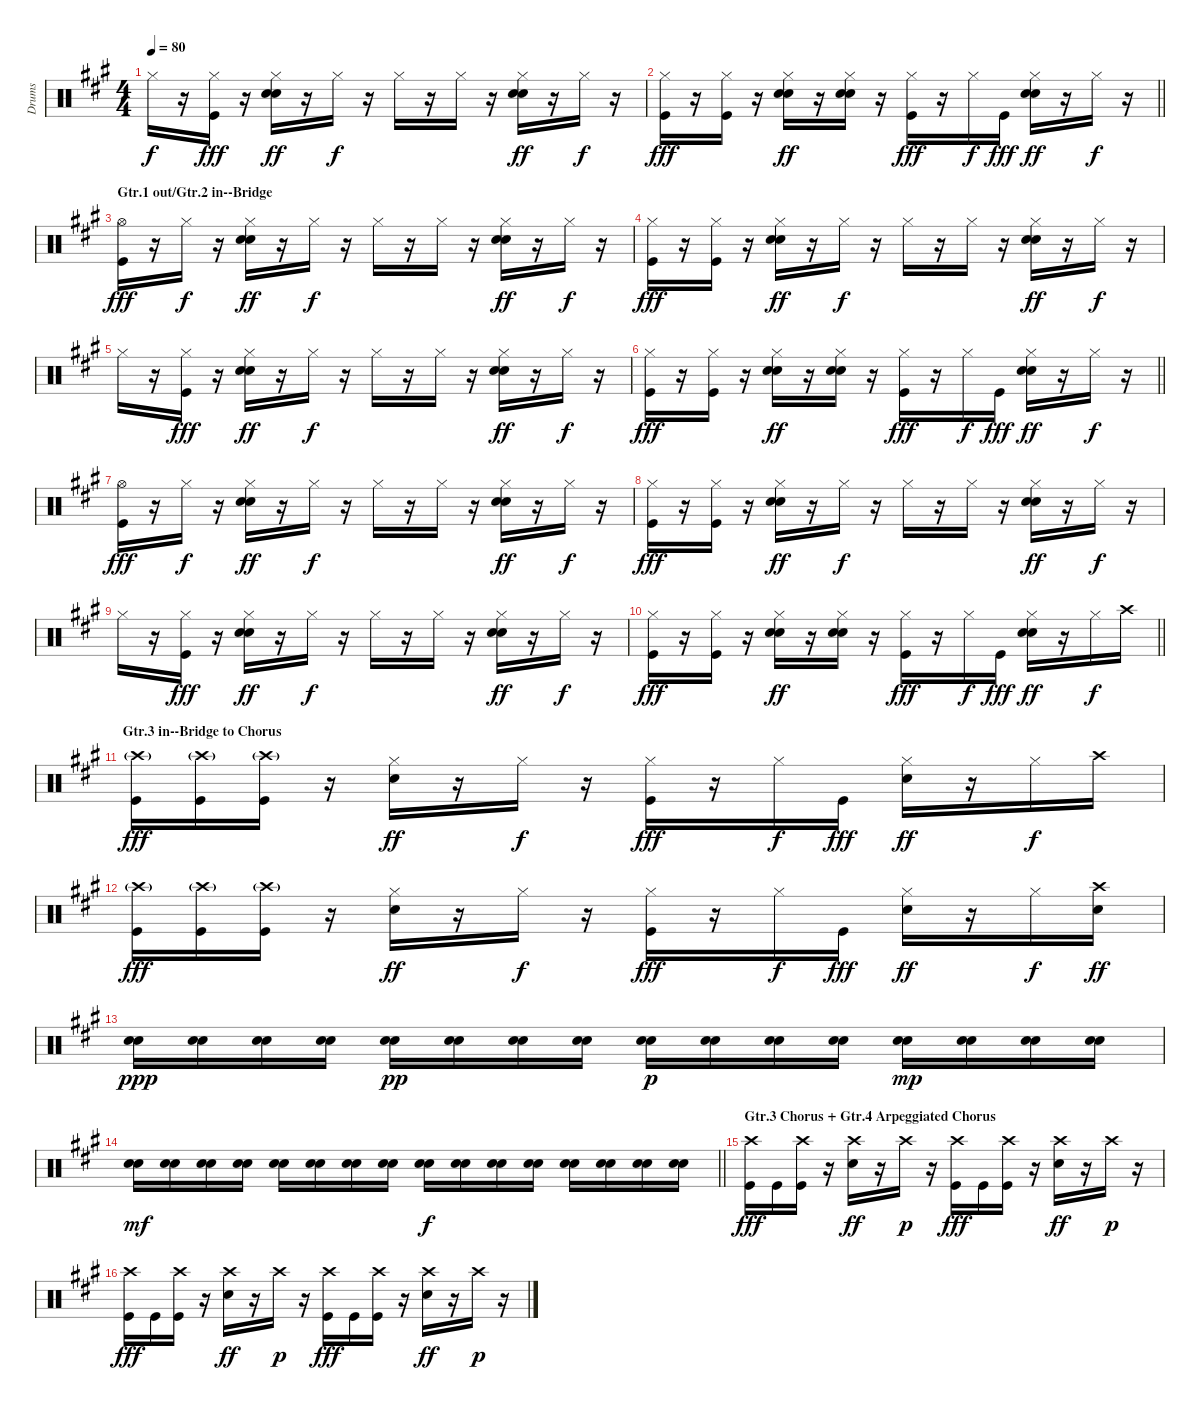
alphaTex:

\track ("Drums" "Drums") {instrument percussion}
\staff {score}
\articulation defaults
\ts (4 4)
\tempo 80
\clef neutral
\ks f#minor "Hi-Hat (closed)".16{dy f}
r.16 ("Hi-Hat (closed)" "Kick (hit)").16{dy fff} r.16 ("Hi-Hat (closed)" "Electric Snare (hit)" "Snare (hit) 2").16{dy ff} r.16 "Hi-Hat (closed)".16{dy f} r.16 "Hi-Hat (closed)".16 r.16 "Hi-Hat (closed)".16 r.16 ("Hi-Hat (closed)" "Electric Snare (hit)" "Snare (hit) 2").16{dy ff} r.16 "Hi-Hat (closed)".16{dy f} r.16 |
\barLineRight lightlight
("Hi-Hat (closed)" "Kick (hit)").16{dy fff} r.16 ("Hi-Hat (closed)" "Kick (hit)").16 r.16 ("Hi-Hat (closed)" "Electric Snare (hit)" "Snare (hit) 2").16{dy ff} r.16 ("Hi-Hat (closed)" "Electric Snare (hit)" "Snare (hit) 2").16 r.16 ("Hi-Hat (closed)" "Kick (hit)").16{dy fff} r.16 "Hi-Hat (closed)".16{dy f} "Kick (hit)".16{dy fff} ("Hi-Hat (closed)" "Electric Snare (hit)" "Snare (hit) 2").16{dy ff} r.16 "Hi-Hat (closed)".16{dy f} r.16 |
\section ("" "Gtr.1 out/Gtr.2 in--Bridge")
\ks a
("Hi-Hat (open)" "Kick (hit)").16{dy fff} r.16 "Hi-Hat (closed)".16{dy f} r.16 ("Hi-Hat (closed)" "Electric Snare (hit)" "Snare (hit) 2").16{dy ff} r.16 "Hi-Hat (closed)".16{dy f} r.16 "Hi-Hat (closed)".16 r.16 "Hi-Hat (closed)".16 r.16 ("Hi-Hat (closed)" "Electric Snare (hit)" "Snare (hit) 2").16{dy ff} r.16 "Hi-Hat (closed)".16{dy f} r.16 |
\ks f#minor
("Hi-Hat (closed)" "Kick (hit)").16{dy fff} r.16 ("Hi-Hat (closed)" "Kick (hit)").16 r.16 ("Hi-Hat (closed)" "Electric Snare (hit)" "Snare (hit) 2").16{dy ff} r.16 "Hi-Hat (closed)".16{dy f} r.16 "Hi-Hat (closed)".16 r.16 "Hi-Hat (closed)".16 r.16 ("Hi-Hat (closed)" "Electric Snare (hit)" "Snare (hit) 2").16{dy ff} r.16 "Hi-Hat (closed)".16{dy f} r.16 |
"Hi-Hat (closed)".16 r.16 ("Hi-Hat (closed)" "Kick (hit)").16{dy fff} r.16 ("Hi-Hat (closed)" "Electric Snare (hit)" "Snare (hit) 2").16{dy ff} r.16 "Hi-Hat (closed)".16{dy f} r.16 "Hi-Hat (closed)".16 r.16 "Hi-Hat (closed)".16 r.16 ("Hi-Hat (closed)" "Electric Snare (hit)" "Snare (hit) 2").16{dy ff} r.16 "Hi-Hat (closed)".16{dy f} r.16 |
\barLineRight lightlight
("Hi-Hat (closed)" "Kick (hit)").16{dy fff} r.16 ("Hi-Hat (closed)" "Kick (hit)").16 r.16 ("Hi-Hat (closed)" "Electric Snare (hit)" "Snare (hit) 2").16{dy ff} r.16 ("Hi-Hat (closed)" "Electric Snare (hit)" "Snare (hit) 2").16 r.16 ("Hi-Hat (closed)" "Kick (hit)").16{dy fff} r.16 "Hi-Hat (closed)".16{dy f} "Kick (hit)".16{dy fff} ("Hi-Hat (closed)" "Electric Snare (hit)" "Snare (hit) 2").16{dy ff} r.16 "Hi-Hat (closed)".16{dy f} r.16 |
\ks a
("Hi-Hat (open)" "Kick (hit)").16{dy fff} r.16 "Hi-Hat (closed)".16{dy f} r.16 ("Hi-Hat (closed)" "Electric Snare (hit)" "Snare (hit) 2").16{dy ff} r.16 "Hi-Hat (closed)".16{dy f} r.16 "Hi-Hat (closed)".16 r.16 "Hi-Hat (closed)".16 r.16 ("Hi-Hat (closed)" "Electric Snare (hit)" "Snare (hit) 2").16{dy ff} r.16 "Hi-Hat (closed)".16{dy f} r.16 |
\ks f#minor
("Hi-Hat (closed)" "Kick (hit)").16{dy fff} r.16 ("Hi-Hat (closed)" "Kick (hit)").16 r.16 ("Hi-Hat (closed)" "Electric Snare (hit)" "Snare (hit) 2").16{dy ff} r.16 "Hi-Hat (closed)".16{dy f} r.16 "Hi-Hat (closed)".16 r.16 "Hi-Hat (closed)".16 r.16 ("Hi-Hat (closed)" "Electric Snare (hit)" "Snare (hit) 2").16{dy ff} r.16 "Hi-Hat (closed)".16{dy f} r.16 |
"Hi-Hat (closed)".16 r.16 ("Hi-Hat (closed)" "Kick (hit)").16{dy fff} r.16 ("Hi-Hat (closed)" "Electric Snare (hit)" "Snare (hit) 2").16{dy ff} r.16 "Hi-Hat (closed)".16{dy f} r.16 "Hi-Hat (closed)".16 r.16 "Hi-Hat (closed)".16 r.16 ("Hi-Hat (closed)" "Electric Snare (hit)" "Snare (hit) 2").16{dy ff} r.16 "Hi-Hat (closed)".16{dy f} r.16 |
\barLineRight lightlight
("Hi-Hat (closed)" "Kick (hit)").16{dy fff} r.16 ("Hi-Hat (closed)" "Kick (hit)").16 r.16 ("Hi-Hat (closed)" "Electric Snare (hit)" "Snare (hit) 2").16{dy ff} r.16 ("Hi-Hat (closed)" "Electric Snare (hit)" "Snare (hit) 2").16 r.16 ("Hi-Hat (closed)" "Kick (hit)").16{dy fff} r.16 "Hi-Hat (closed)".16{dy f} "Kick (hit)".16{dy fff} ("Hi-Hat (closed)" "Electric Snare (hit)" "Snare (hit) 2").16{dy ff} r.16 "Hi-Hat (closed)".16{dy f} "Crash high (hit)".16 |
\section ("" "Gtr.3 in--Bridge to Chorus")
("Crash high (hit)"{g} "Kick (hit)").16{dy fff} ("Crash high (hit)"{g} "Kick (hit)").16 ("Crash high (hit)"{g} "Kick (hit)").16 r.16 ("Hi-Hat (closed)" "Electric Snare (hit)").16{dy ff} r.16 "Hi-Hat (closed)".16{dy f} r.16 ("Hi-Hat (closed)" "Kick (hit)").16{dy fff} r.16 "Hi-Hat (closed)".16{dy f} "Kick (hit)".16{dy fff} ("Hi-Hat (closed)" "Electric Snare (hit)").16{dy ff} r.16 "Hi-Hat (closed)".16{dy f} "Crash high (hit)".16 |
("Crash high (hit)"{g} "Kick (hit)").16{dy fff} ("Crash high (hit)"{g} "Kick (hit)").16 ("Crash high (hit)"{g} "Kick (hit)").16 r.16 ("Hi-Hat (closed)" "Electric Snare (hit)").16{dy ff} r.16 "Hi-Hat (closed)".16{dy f} r.16 ("Hi-Hat (closed)" "Kick (hit)").16{dy fff} r.16 "Hi-Hat (closed)".16{dy f} "Kick (hit)".16{dy fff} ("Hi-Hat (closed)" "Electric Snare (hit)").16{dy ff} r.16 "Hi-Hat (closed)".16{dy f} ("Crash high (hit)" "Electric Snare (hit)").16{dy ff} |
("Electric Snare (hit)" "Snare (hit) 2").16{dy ppp} ("Electric Snare (hit)" "Snare (hit) 2").16 ("Electric Snare (hit)" "Snare (hit) 2").16 ("Electric Snare (hit)" "Snare (hit) 2").16 ("Electric Snare (hit)" "Snare (hit) 2").16{dy pp} ("Electric Snare (hit)" "Snare (hit) 2").16 ("Electric Snare (hit)" "Snare (hit) 2").16 ("Electric Snare (hit)" "Snare (hit) 2").16 ("Electric Snare (hit)" "Snare (hit) 2").16{dy p} ("Electric Snare (hit)" "Snare (hit) 2").16 ("Electric Snare (hit)" "Snare (hit) 2").16 ("Electric Snare (hit)" "Snare (hit) 2").16 ("Electric Snare (hit)" "Snare (hit) 2").16{dy mp} ("Electric Snare (hit)" "Snare (hit) 2").16 ("Electric Snare (hit)" "Snare (hit) 2").16 ("Electric Snare (hit)" "Snare (hit) 2").16 |
\barLineRight lightlight
("Electric Snare (hit)" "Snare (hit) 2").16{dy mf} ("Electric Snare (hit)" "Snare (hit) 2").16 ("Electric Snare (hit)" "Snare (hit) 2").16 ("Electric Snare (hit)" "Snare (hit) 2").16 ("Electric Snare (hit)" "Snare (hit) 2").16 ("Electric Snare (hit)" "Snare (hit) 2").16 ("Electric Snare (hit)" "Snare (hit) 2").16 ("Electric Snare (hit)" "Snare (hit) 2").16 ("Electric Snare (hit)" "Snare (hit) 2").16{dy f} ("Electric Snare (hit)" "Snare (hit) 2").16 ("Electric Snare (hit)" "Snare (hit) 2").16 ("Electric Snare (hit)" "Snare (hit) 2").16 ("Electric Snare (hit)" "Snare (hit) 2").16 ("Electric Snare (hit)" "Snare (hit) 2").16 ("Electric Snare (hit)" "Snare (hit) 2").16 ("Electric Snare (hit)" "Snare (hit) 2").16 |
\section ("" "Gtr.3 Chorus + Gtr.4 Arpeggiated Chorus")
("Crash high (hit)" "Kick (hit)").16{dy fff} "Kick (hit)".16 ("Crash high (hit)" "Kick (hit)").16 r.16 ("Crash high (hit)" "Snare (hit) 2").16{dy ff} r.16 "Crash high (hit)".16{dy p} r.16 ("Crash high (hit)" "Kick (hit)").16{dy fff} "Kick (hit)".16 ("Crash high (hit)" "Kick (hit)").16 r.16 ("Crash high (hit)" "Snare (hit) 2").16{dy ff} r.16 "Crash high (hit)".16{dy p} r.16 |
("Crash high (hit)" "Kick (hit)").16{dy fff} "Kick (hit)".16 ("Crash high (hit)" "Kick (hit)").16 r.16 ("Crash high (hit)" "Snare (hit) 2").16{dy ff} r.16 "Crash high (hit)".16{dy p} r.16 ("Crash high (hit)" "Kick (hit)").16{dy fff} "Kick (hit)".16 ("Crash high (hit)" "Kick (hit)").16 r.16 ("Crash high (hit)" "Snare (hit) 2").16{dy ff} r.16 "Crash high (hit)".16{dy p} r.16
